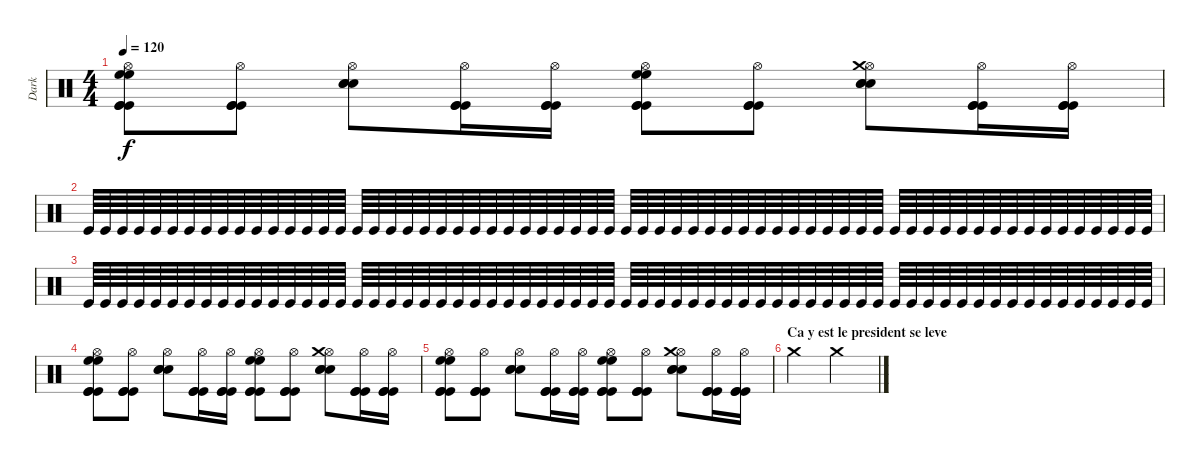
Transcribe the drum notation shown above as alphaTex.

\track ("Dark" "Dark") {instrument percussion}
\staff {score}
\articulation defaults
\ts (4 4)
\tempo 120
\clef neutral
\ks c
("Hi-Hat (open)" "High Floor Tom (hit)" "High Floor Tom (hit)" "Kick (hit)" "Kick (hit)" "Kick (hit)").8{dy f} ("Hi-Hat (open)" "Kick (hit)" "Kick (hit)" "Kick (hit)").8 ("Hi-Hat (open)" "Snare (hit) 2" "Snare (hit) 2" "Snare (hit) 2").8 ("Hi-Hat (open)" "Kick (hit)" "Kick (hit)" "Kick (hit)").16 ("Hi-Hat (open)" "Kick (hit)" "Kick (hit)" "Kick (hit)").16 ("Hi-Hat (open)" "High Floor Tom (hit)" "High Floor Tom (hit)" "Kick (hit)" "Kick (hit)" "Kick (hit)").8 ("Hi-Hat (open)" "Kick (hit)" "Kick (hit)" "Kick (hit)").8 ("Hi-Hat (open)" "Crash medium (hit)" "Snare (hit) 2" "Snare (hit) 2" "Snare (hit) 2").8 ("Hi-Hat (open)" "Kick (hit)" "Kick (hit)" "Kick (hit)").16 ("Hi-Hat (open)" "Kick (hit)" "Kick (hit)" "Kick (hit)").16 |
"Kick (hit)".64{volume 16} "Kick (hit)".64 "Kick (hit)".64 "Kick (hit)".64 "Kick (hit)".64 "Kick (hit)".64 "Kick (hit)".64 "Kick (hit)".64 "Kick (hit)".64 "Kick (hit)".64 "Kick (hit)".64 "Kick (hit)".64 "Kick (hit)".64 "Kick (hit)".64 "Kick (hit)".64 "Kick (hit)".64 "Kick (hit)".64 "Kick (hit)".64 "Kick (hit)".64 "Kick (hit)".64 "Kick (hit)".64 "Kick (hit)".64 "Kick (hit)".64 "Kick (hit)".64 "Kick (hit)".64 "Kick (hit)".64 "Kick (hit)".64 "Kick (hit)".64 "Kick (hit)".64 "Kick (hit)".64 "Kick (hit)".64 "Kick (hit)".64 "Kick (hit)".64 "Kick (hit)".64 "Kick (hit)".64 "Kick (hit)".64 "Kick (hit)".64 "Kick (hit)".64 "Kick (hit)".64 "Kick (hit)".64 "Kick (hit)".64 "Kick (hit)".64 "Kick (hit)".64 "Kick (hit)".64 "Kick (hit)".64 "Kick (hit)".64 "Kick (hit)".64 "Kick (hit)".64 "Kick (hit)".64 "Kick (hit)".64 "Kick (hit)".64 "Kick (hit)".64 "Kick (hit)".64 "Kick (hit)".64 "Kick (hit)".64 "Kick (hit)".64 "Kick (hit)".64 "Kick (hit)".64 "Kick (hit)".64 "Kick (hit)".64 "Kick (hit)".64 "Kick (hit)".64 "Kick (hit)".64 "Kick (hit)".64 |
"Kick (hit)".64 "Kick (hit)".64 "Kick (hit)".64 "Kick (hit)".64 "Kick (hit)".64 "Kick (hit)".64 "Kick (hit)".64 "Kick (hit)".64 "Kick (hit)".64 "Kick (hit)".64 "Kick (hit)".64 "Kick (hit)".64 "Kick (hit)".64 "Kick (hit)".64 "Kick (hit)".64 "Kick (hit)".64 "Kick (hit)".64 "Kick (hit)".64 "Kick (hit)".64 "Kick (hit)".64 "Kick (hit)".64 "Kick (hit)".64 "Kick (hit)".64 "Kick (hit)".64 "Kick (hit)".64 "Kick (hit)".64 "Kick (hit)".64 "Kick (hit)".64 "Kick (hit)".64 "Kick (hit)".64 "Kick (hit)".64 "Kick (hit)".64 "Kick (hit)".64 "Kick (hit)".64 "Kick (hit)".64 "Kick (hit)".64 "Kick (hit)".64 "Kick (hit)".64 "Kick (hit)".64 "Kick (hit)".64 "Kick (hit)".64 "Kick (hit)".64 "Kick (hit)".64 "Kick (hit)".64 "Kick (hit)".64 "Kick (hit)".64 "Kick (hit)".64 "Kick (hit)".64 "Kick (hit)".64 "Kick (hit)".64 "Kick (hit)".64 "Kick (hit)".64 "Kick (hit)".64 "Kick (hit)".64 "Kick (hit)".64 "Kick (hit)".64 "Kick (hit)".64 "Kick (hit)".64 "Kick (hit)".64 "Kick (hit)".64 "Kick (hit)".64 "Kick (hit)".64 "Kick (hit)".64 "Kick (hit)".64 |
("Hi-Hat (open)" "High Floor Tom (hit)" "High Floor Tom (hit)" "Kick (hit)" "Kick (hit)" "Kick (hit)").8{volume 13} ("Hi-Hat (open)" "Kick (hit)" "Kick (hit)" "Kick (hit)").8 ("Hi-Hat (open)" "Snare (hit) 2" "Snare (hit) 2" "Snare (hit) 2").8 ("Hi-Hat (open)" "Kick (hit)" "Kick (hit)" "Kick (hit)").16 ("Hi-Hat (open)" "Kick (hit)" "Kick (hit)" "Kick (hit)").16 ("Hi-Hat (open)" "High Floor Tom (hit)" "High Floor Tom (hit)" "Kick (hit)" "Kick (hit)" "Kick (hit)").8 ("Hi-Hat (open)" "Kick (hit)" "Kick (hit)" "Kick (hit)").8 ("Hi-Hat (open)" "Crash medium (hit)" "Snare (hit) 2" "Snare (hit) 2" "Snare (hit) 2").8 ("Hi-Hat (open)" "Kick (hit)" "Kick (hit)" "Kick (hit)").16 ("Hi-Hat (open)" "Kick (hit)" "Kick (hit)" "Kick (hit)").16 |
("Hi-Hat (open)" "High Floor Tom (hit)" "High Floor Tom (hit)" "Kick (hit)" "Kick (hit)" "Kick (hit)").8 ("Hi-Hat (open)" "Kick (hit)" "Kick (hit)" "Kick (hit)").8 ("Hi-Hat (open)" "Snare (hit) 2" "Snare (hit) 2" "Snare (hit) 2").8 ("Hi-Hat (open)" "Kick (hit)" "Kick (hit)" "Kick (hit)").16 ("Hi-Hat (open)" "Kick (hit)" "Kick (hit)" "Kick (hit)").16 ("Hi-Hat (open)" "High Floor Tom (hit)" "High Floor Tom (hit)" "Kick (hit)" "Kick (hit)" "Kick (hit)").8 ("Hi-Hat (open)" "Kick (hit)" "Kick (hit)" "Kick (hit)").8 ("Hi-Hat (open)" "Crash medium (hit)" "Snare (hit) 2" "Snare (hit) 2" "Snare (hit) 2").8 ("Hi-Hat (open)" "Kick (hit)" "Kick (hit)" "Kick (hit)").16 ("Hi-Hat (open)" "Kick (hit)" "Kick (hit)" "Kick (hit)").16 |
\section ("" "Ca y est le president se leve")
"Crash medium (hit)".2 "Crash medium (hit)".2
